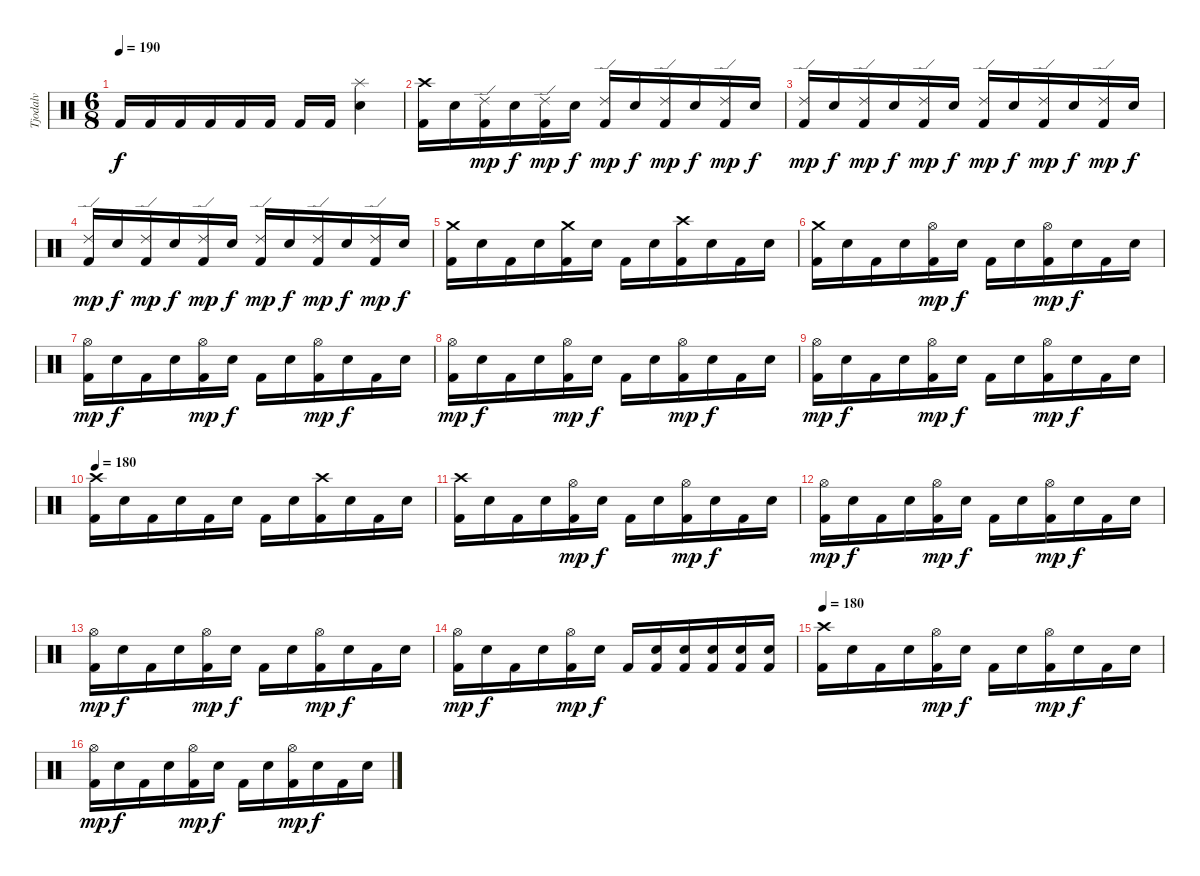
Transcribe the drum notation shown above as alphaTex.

\track ("Tjodalv" "Tjodalv") {instrument percussion}
\staff {score}
\articulation defaults
\ts (6 8)
\tempo 190
\clef neutral
\ks c "Kick (hit) 2".16{dy f} "Kick (hit) 2".16 "Kick (hit) 2".16 "Kick (hit) 2".16 "Kick (hit) 2".16 "Kick (hit) 2".16 "Kick (hit) 2".16 "Kick (hit) 2".16
("Splash (hit)" "Electric Snare (hit)").4 |
("Crash high (hit)" "Kick (hit) 2").16 "Electric Snare (hit)".16 ("Ride (edge) 2" "Kick (hit) 2").16{dy mp} "Electric Snare (hit)".16{dy f} ("Ride (edge) 2" "Kick (hit) 2").16{dy mp} "Electric Snare (hit)".16{dy f} ("Ride (edge) 2" "Kick (hit) 2").16{dy mp} "Electric Snare (hit)".16{dy f} ("Ride (edge) 2" "Kick (hit) 2").16{dy mp} "Electric Snare (hit)".16{dy f} ("Ride (edge) 2" "Kick (hit) 2").16{dy mp} "Electric Snare (hit)".16{dy f} |
("Ride (edge) 2" "Kick (hit) 2").16{dy mp} "Electric Snare (hit)".16{dy f} ("Ride (edge) 2" "Kick (hit) 2").16{dy mp} "Electric Snare (hit)".16{dy f} ("Ride (edge) 2" "Kick (hit) 2").16{dy mp} "Electric Snare (hit)".16{dy f} ("Ride (edge) 2" "Kick (hit) 2").16{dy mp} "Electric Snare (hit)".16{dy f} ("Ride (edge) 2" "Kick (hit) 2").16{dy mp} "Electric Snare (hit)".16{dy f} ("Ride (edge) 2" "Kick (hit) 2").16{dy mp} "Electric Snare (hit)".16{dy f} |
("Ride (edge) 2" "Kick (hit) 2").16{dy mp} "Electric Snare (hit)".16{dy f} ("Ride (edge) 2" "Kick (hit) 2").16{dy mp} "Electric Snare (hit)".16{dy f} ("Ride (edge) 2" "Kick (hit) 2").16{dy mp} "Electric Snare (hit)".16{dy f} ("Ride (edge) 2" "Kick (hit) 2").16{dy mp} "Electric Snare (hit)".16{dy f} ("Ride (edge) 2" "Kick (hit) 2").16{dy mp} "Electric Snare (hit)".16{dy f} ("Ride (edge) 2" "Kick (hit) 2").16{dy mp} "Electric Snare (hit)".16{dy f} |
("Crash medium (hit)" "Kick (hit) 2").16 "Electric Snare (hit)".16 "Kick (hit) 2".16 "Electric Snare (hit)".16 ("Crash medium (hit)" "Kick (hit) 2").16 "Electric Snare (hit)".16 "Kick (hit) 2".16 "Electric Snare (hit)".16 ("Crash high (hit)" "Kick (hit) 2").16 "Electric Snare (hit)".16 "Kick (hit) 2".16 "Electric Snare (hit)".16 |
("Crash medium (hit)" "Kick (hit) 2").16 "Electric Snare (hit)".16 "Kick (hit) 2".16 "Electric Snare (hit)".16 ("Hi-Hat (open)" "Kick (hit) 2").16{dy mp} "Electric Snare (hit)".16{dy f} "Kick (hit) 2".16 "Electric Snare (hit)".16 ("Hi-Hat (open)" "Kick (hit) 2").16{dy mp} "Electric Snare (hit)".16{dy f} "Kick (hit) 2".16 "Electric Snare (hit)".16 |
("Hi-Hat (open)" "Kick (hit) 2").16{dy mp} "Electric Snare (hit)".16{dy f} "Kick (hit) 2".16 "Electric Snare (hit)".16 ("Hi-Hat (open)" "Kick (hit) 2").16{dy mp} "Electric Snare (hit)".16{dy f} "Kick (hit) 2".16 "Electric Snare (hit)".16 ("Hi-Hat (open)" "Kick (hit) 2").16{dy mp} "Electric Snare (hit)".16{dy f} "Kick (hit) 2".16 "Electric Snare (hit)".16 |
("Hi-Hat (open)" "Kick (hit) 2").16{dy mp} "Electric Snare (hit)".16{dy f} "Kick (hit) 2".16 "Electric Snare (hit)".16 ("Hi-Hat (open)" "Kick (hit) 2").16{dy mp} "Electric Snare (hit)".16{dy f} "Kick (hit) 2".16 "Electric Snare (hit)".16 ("Hi-Hat (open)" "Kick (hit) 2").16{dy mp} "Electric Snare (hit)".16{dy f} "Kick (hit) 2".16 "Electric Snare (hit)".16 |
("Hi-Hat (open)" "Kick (hit) 2").16{dy mp} "Electric Snare (hit)".16{dy f} "Kick (hit) 2".16 "Electric Snare (hit)".16 ("Hi-Hat (open)" "Kick (hit) 2").16{dy mp} "Electric Snare (hit)".16{dy f} "Kick (hit) 2".16 "Electric Snare (hit)".16 ("Hi-Hat (open)" "Kick (hit) 2").16{dy mp} "Electric Snare (hit)".16{dy f} "Kick (hit) 2".16 "Electric Snare (hit)".16 |
\tempo 180
("Crash high (hit)" "Kick (hit) 2").16 "Electric Snare (hit)".16 "Kick (hit) 2".16 "Electric Snare (hit)".16 "Kick (hit) 2".16 "Electric Snare (hit)".16 "Kick (hit) 2".16 "Electric Snare (hit)".16 ("Crash high (hit)" "Kick (hit) 2").16 "Electric Snare (hit)".16 "Kick (hit) 2".16 "Electric Snare (hit)".16 |
("Crash high (hit)" "Kick (hit) 2").16 "Electric Snare (hit)".16 "Kick (hit) 2".16 "Electric Snare (hit)".16 ("Hi-Hat (open)" "Kick (hit) 2").16{dy mp} "Electric Snare (hit)".16{dy f} "Kick (hit) 2".16 "Electric Snare (hit)".16 ("Hi-Hat (open)" "Kick (hit) 2").16{dy mp} "Electric Snare (hit)".16{dy f} "Kick (hit) 2".16 "Electric Snare (hit)".16 |
("Hi-Hat (open)" "Kick (hit) 2").16{dy mp} "Electric Snare (hit)".16{dy f} "Kick (hit) 2".16 "Electric Snare (hit)".16 ("Hi-Hat (open)" "Kick (hit) 2").16{dy mp} "Electric Snare (hit)".16{dy f} "Kick (hit) 2".16 "Electric Snare (hit)".16 ("Hi-Hat (open)" "Kick (hit) 2").16{dy mp} "Electric Snare (hit)".16{dy f} "Kick (hit) 2".16 "Electric Snare (hit)".16 |
("Hi-Hat (open)" "Kick (hit) 2").16{dy mp} "Electric Snare (hit)".16{dy f} "Kick (hit) 2".16 "Electric Snare (hit)".16 ("Hi-Hat (open)" "Kick (hit) 2").16{dy mp} "Electric Snare (hit)".16{dy f} "Kick (hit) 2".16 "Electric Snare (hit)".16 ("Hi-Hat (open)" "Kick (hit) 2").16{dy mp} "Electric Snare (hit)".16{dy f} "Kick (hit) 2".16 "Electric Snare (hit)".16 |
("Hi-Hat (open)" "Kick (hit) 2").16{dy mp} "Electric Snare (hit)".16{dy f} "Kick (hit) 2".16 "Electric Snare (hit)".16 ("Hi-Hat (open)" "Kick (hit) 2").16{dy mp} "Electric Snare (hit)".16{dy f} "Kick (hit) 2".16 ("Electric Snare (hit)" "Kick (hit) 2").16 ("Electric Snare (hit)" "Kick (hit) 2").16 ("Electric Snare (hit)" "Kick (hit) 2").16 ("Electric Snare (hit)" "Kick (hit) 2").16 ("Electric Snare (hit)" "Kick (hit) 2").16 |
\tempo 180
("Crash high (hit)" "Kick (hit) 2").16 "Electric Snare (hit)".16 "Kick (hit) 2".16 "Electric Snare (hit)".16 ("Hi-Hat (open)" "Kick (hit) 2").16{dy mp} "Electric Snare (hit)".16{dy f} "Kick (hit) 2".16 "Electric Snare (hit)".16 ("Hi-Hat (open)" "Kick (hit) 2").16{dy mp} "Electric Snare (hit)".16{dy f} "Kick (hit) 2".16 "Electric Snare (hit)".16 |
("Hi-Hat (open)" "Kick (hit) 2").16{dy mp} "Electric Snare (hit)".16{dy f} "Kick (hit) 2".16 "Electric Snare (hit)".16 ("Hi-Hat (open)" "Kick (hit) 2").16{dy mp} "Electric Snare (hit)".16{dy f} "Kick (hit) 2".16 "Electric Snare (hit)".16 ("Hi-Hat (open)" "Kick (hit) 2").16{dy mp} "Electric Snare (hit)".16{dy f} "Kick (hit) 2".16 "Electric Snare (hit)".16
